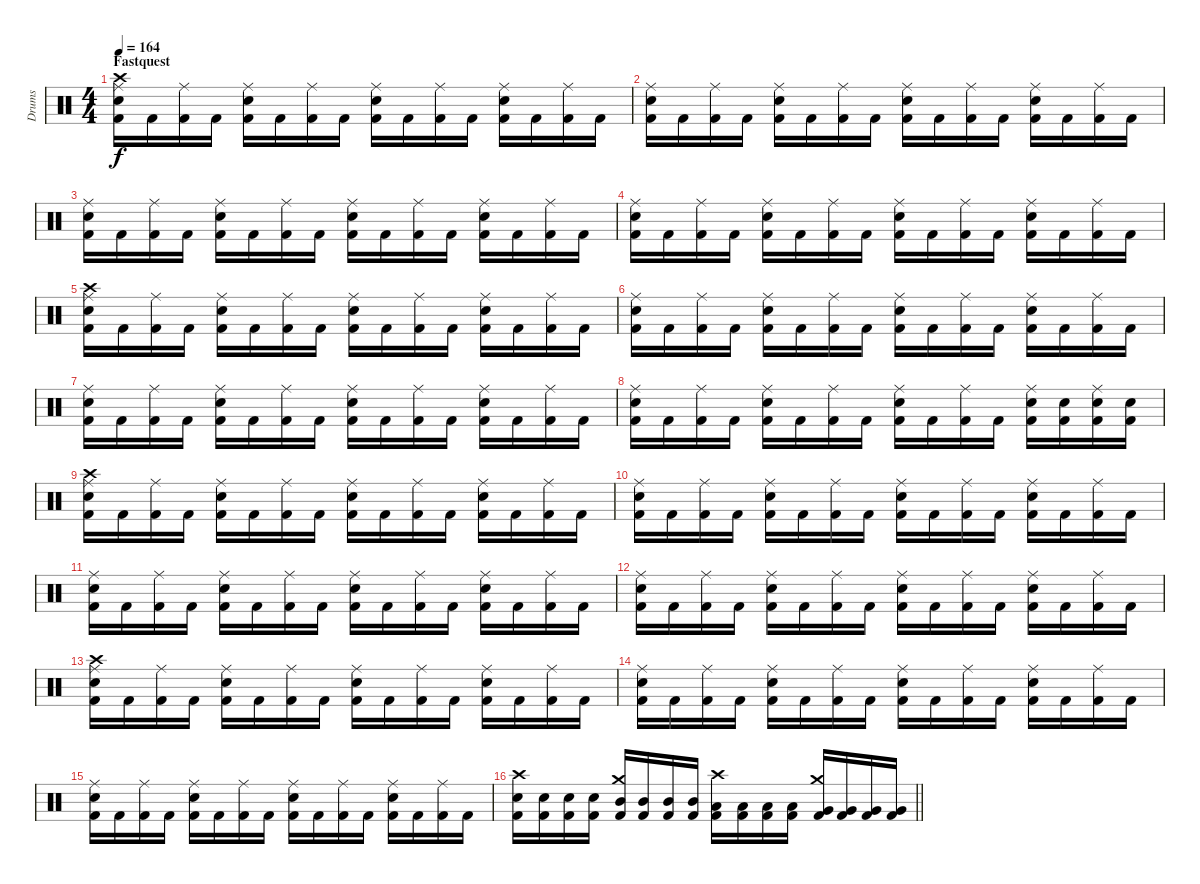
\track ("Drums" "Drums") {instrument percussion}
\staff {score}
\articulation defaults
\ts (4 4)
\section ("" "Fastquest")
\tempo 164
\clef neutral
\ks c
("Crash high (hit)" "Ride (middle)" "Snare (hit) 2" "Kick (hit) 2").16{dy f} "Kick (hit) 2".16 ("Ride (middle)" "Kick (hit) 2").16 "Kick (hit) 2".16 ("Ride (middle)" "Snare (hit) 2" "Kick (hit) 2").16 "Kick (hit) 2".16 ("Ride (middle)" "Kick (hit) 2").16 "Kick (hit) 2".16 ("Ride (middle)" "Snare (hit) 2" "Kick (hit) 2").16 "Kick (hit) 2".16 ("Ride (middle)" "Kick (hit) 2").16 "Kick (hit) 2".16 ("Ride (middle)" "Snare (hit) 2" "Kick (hit) 2").16 "Kick (hit) 2".16 ("Ride (middle)" "Kick (hit) 2").16 "Kick (hit) 2".16 |
("Ride (middle)" "Snare (hit) 2" "Kick (hit) 2").16 "Kick (hit) 2".16 ("Ride (middle)" "Kick (hit) 2").16 "Kick (hit) 2".16 ("Ride (middle)" "Snare (hit) 2" "Kick (hit) 2").16 "Kick (hit) 2".16 ("Ride (middle)" "Kick (hit) 2").16 "Kick (hit) 2".16 ("Ride (middle)" "Snare (hit) 2" "Kick (hit) 2").16 "Kick (hit) 2".16 ("Ride (middle)" "Kick (hit) 2").16 "Kick (hit) 2".16 ("Ride (middle)" "Snare (hit) 2" "Kick (hit) 2").16 "Kick (hit) 2".16 ("Ride (middle)" "Kick (hit) 2").16 "Kick (hit) 2".16 |
("Ride (middle)" "Snare (hit) 2" "Kick (hit) 2").16 "Kick (hit) 2".16 ("Ride (middle)" "Kick (hit) 2").16 "Kick (hit) 2".16 ("Ride (middle)" "Snare (hit) 2" "Kick (hit) 2").16 "Kick (hit) 2".16 ("Ride (middle)" "Kick (hit) 2").16 "Kick (hit) 2".16 ("Ride (middle)" "Snare (hit) 2" "Kick (hit) 2").16 "Kick (hit) 2".16 ("Ride (middle)" "Kick (hit) 2").16 "Kick (hit) 2".16 ("Ride (middle)" "Snare (hit) 2" "Kick (hit) 2").16 "Kick (hit) 2".16 ("Ride (middle)" "Kick (hit) 2").16 "Kick (hit) 2".16 |
("Ride (middle)" "Snare (hit) 2" "Kick (hit) 2").16 "Kick (hit) 2".16 ("Ride (middle)" "Kick (hit) 2").16 "Kick (hit) 2".16 ("Ride (middle)" "Snare (hit) 2" "Kick (hit) 2").16 "Kick (hit) 2".16 ("Ride (middle)" "Kick (hit) 2").16 "Kick (hit) 2".16 ("Ride (middle)" "Snare (hit) 2" "Kick (hit) 2").16 "Kick (hit) 2".16 ("Ride (middle)" "Kick (hit) 2").16 "Kick (hit) 2".16 ("Ride (middle)" "Snare (hit) 2" "Kick (hit) 2").16 "Kick (hit) 2".16 ("Ride (middle)" "Kick (hit) 2").16 "Kick (hit) 2".16 |
("Crash high (hit)" "Ride (middle)" "Snare (hit) 2" "Kick (hit) 2").16 "Kick (hit) 2".16 ("Ride (middle)" "Kick (hit) 2").16 "Kick (hit) 2".16 ("Ride (middle)" "Snare (hit) 2" "Kick (hit) 2").16 "Kick (hit) 2".16 ("Ride (middle)" "Kick (hit) 2").16 "Kick (hit) 2".16 ("Ride (middle)" "Snare (hit) 2" "Kick (hit) 2").16 "Kick (hit) 2".16 ("Ride (middle)" "Kick (hit) 2").16 "Kick (hit) 2".16 ("Ride (middle)" "Snare (hit) 2" "Kick (hit) 2").16 "Kick (hit) 2".16 ("Ride (middle)" "Kick (hit) 2").16 "Kick (hit) 2".16 |
("Ride (middle)" "Snare (hit) 2" "Kick (hit) 2").16 "Kick (hit) 2".16 ("Ride (middle)" "Kick (hit) 2").16 "Kick (hit) 2".16 ("Ride (middle)" "Snare (hit) 2" "Kick (hit) 2").16 "Kick (hit) 2".16 ("Ride (middle)" "Kick (hit) 2").16 "Kick (hit) 2".16 ("Ride (middle)" "Snare (hit) 2" "Kick (hit) 2").16 "Kick (hit) 2".16 ("Ride (middle)" "Kick (hit) 2").16 "Kick (hit) 2".16 ("Ride (middle)" "Snare (hit) 2" "Kick (hit) 2").16 "Kick (hit) 2".16 ("Ride (middle)" "Kick (hit) 2").16 "Kick (hit) 2".16 |
("Ride (middle)" "Snare (hit) 2" "Kick (hit) 2").16 "Kick (hit) 2".16 ("Ride (middle)" "Kick (hit) 2").16 "Kick (hit) 2".16 ("Ride (middle)" "Snare (hit) 2" "Kick (hit) 2").16 "Kick (hit) 2".16 ("Ride (middle)" "Kick (hit) 2").16 "Kick (hit) 2".16 ("Ride (middle)" "Snare (hit) 2" "Kick (hit) 2").16 "Kick (hit) 2".16 ("Ride (middle)" "Kick (hit) 2").16 "Kick (hit) 2".16 ("Ride (middle)" "Snare (hit) 2" "Kick (hit) 2").16 "Kick (hit) 2".16 ("Ride (middle)" "Kick (hit) 2").16 "Kick (hit) 2".16 |
("Ride (middle)" "Snare (hit) 2" "Kick (hit) 2").16 "Kick (hit) 2".16 ("Ride (middle)" "Kick (hit) 2").16 "Kick (hit) 2".16 ("Ride (middle)" "Snare (hit) 2" "Kick (hit) 2").16 "Kick (hit) 2".16 ("Ride (middle)" "Kick (hit) 2").16 "Kick (hit) 2".16 ("Ride (middle)" "Snare (hit) 2" "Kick (hit) 2").16 "Kick (hit) 2".16 ("Ride (middle)" "Kick (hit) 2").16 "Kick (hit) 2".16 ("Ride (middle)" "Snare (hit) 2" "Kick (hit) 2").16 ("Snare (hit) 2" "Kick (hit) 2").16 ("Ride (middle)" "Snare (hit) 2" "Kick (hit) 2").16 ("Snare (hit) 2" "Kick (hit) 2").16 |
("Crash high (hit)" "Ride (middle)" "Snare (hit) 2" "Kick (hit) 2").16 "Kick (hit) 2".16 ("Ride (middle)" "Kick (hit) 2").16 "Kick (hit) 2".16 ("Ride (middle)" "Snare (hit) 2" "Kick (hit) 2").16 "Kick (hit) 2".16 ("Ride (middle)" "Kick (hit) 2").16 "Kick (hit) 2".16 ("Ride (middle)" "Snare (hit) 2" "Kick (hit) 2").16 "Kick (hit) 2".16 ("Ride (middle)" "Kick (hit) 2").16 "Kick (hit) 2".16 ("Ride (middle)" "Snare (hit) 2" "Kick (hit) 2").16 "Kick (hit) 2".16 ("Ride (middle)" "Kick (hit) 2").16 "Kick (hit) 2".16 |
("Ride (middle)" "Snare (hit) 2" "Kick (hit) 2").16 "Kick (hit) 2".16 ("Ride (middle)" "Kick (hit) 2").16 "Kick (hit) 2".16 ("Ride (middle)" "Snare (hit) 2" "Kick (hit) 2").16 "Kick (hit) 2".16 ("Ride (middle)" "Kick (hit) 2").16 "Kick (hit) 2".16 ("Ride (middle)" "Snare (hit) 2" "Kick (hit) 2").16 "Kick (hit) 2".16 ("Ride (middle)" "Kick (hit) 2").16 "Kick (hit) 2".16 ("Ride (middle)" "Snare (hit) 2" "Kick (hit) 2").16 "Kick (hit) 2".16 ("Ride (middle)" "Kick (hit) 2").16 "Kick (hit) 2".16 |
("Ride (middle)" "Snare (hit) 2" "Kick (hit) 2").16 "Kick (hit) 2".16 ("Ride (middle)" "Kick (hit) 2").16 "Kick (hit) 2".16 ("Ride (middle)" "Snare (hit) 2" "Kick (hit) 2").16 "Kick (hit) 2".16 ("Ride (middle)" "Kick (hit) 2").16 "Kick (hit) 2".16 ("Ride (middle)" "Snare (hit) 2" "Kick (hit) 2").16 "Kick (hit) 2".16 ("Ride (middle)" "Kick (hit) 2").16 "Kick (hit) 2".16 ("Ride (middle)" "Snare (hit) 2" "Kick (hit) 2").16 "Kick (hit) 2".16 ("Ride (middle)" "Kick (hit) 2").16 "Kick (hit) 2".16 |
("Ride (middle)" "Snare (hit) 2" "Kick (hit) 2").16 "Kick (hit) 2".16 ("Ride (middle)" "Kick (hit) 2").16 "Kick (hit) 2".16 ("Ride (middle)" "Snare (hit) 2" "Kick (hit) 2").16 "Kick (hit) 2".16 ("Ride (middle)" "Kick (hit) 2").16 "Kick (hit) 2".16 ("Ride (middle)" "Snare (hit) 2" "Kick (hit) 2").16 "Kick (hit) 2".16 ("Ride (middle)" "Kick (hit) 2").16 "Kick (hit) 2".16 ("Ride (middle)" "Snare (hit) 2" "Kick (hit) 2").16 "Kick (hit) 2".16 ("Ride (middle)" "Kick (hit) 2").16 "Kick (hit) 2".16 |
("Crash high (hit)" "Ride (middle)" "Snare (hit) 2" "Kick (hit) 2").16 "Kick (hit) 2".16 ("Ride (middle)" "Kick (hit) 2").16 "Kick (hit) 2".16 ("Ride (middle)" "Snare (hit) 2" "Kick (hit) 2").16 "Kick (hit) 2".16 ("Ride (middle)" "Kick (hit) 2").16 "Kick (hit) 2".16 ("Ride (middle)" "Snare (hit) 2" "Kick (hit) 2").16 "Kick (hit) 2".16 ("Ride (middle)" "Kick (hit) 2").16 "Kick (hit) 2".16 ("Ride (middle)" "Snare (hit) 2" "Kick (hit) 2").16 "Kick (hit) 2".16 ("Ride (middle)" "Kick (hit) 2").16 "Kick (hit) 2".16 |
("Ride (middle)" "Snare (hit) 2" "Kick (hit) 2").16 "Kick (hit) 2".16 ("Ride (middle)" "Kick (hit) 2").16 "Kick (hit) 2".16 ("Ride (middle)" "Snare (hit) 2" "Kick (hit) 2").16 "Kick (hit) 2".16 ("Ride (middle)" "Kick (hit) 2").16 "Kick (hit) 2".16 ("Ride (middle)" "Snare (hit) 2" "Kick (hit) 2").16 "Kick (hit) 2".16 ("Ride (middle)" "Kick (hit) 2").16 "Kick (hit) 2".16 ("Ride (middle)" "Snare (hit) 2" "Kick (hit) 2").16 "Kick (hit) 2".16 ("Ride (middle)" "Kick (hit) 2").16 "Kick (hit) 2".16 |
("Ride (middle)" "Snare (hit) 2" "Kick (hit) 2").16 "Kick (hit) 2".16 ("Ride (middle)" "Kick (hit) 2").16 "Kick (hit) 2".16 ("Ride (middle)" "Snare (hit) 2" "Kick (hit) 2").16 "Kick (hit) 2".16 ("Ride (middle)" "Kick (hit) 2").16 "Kick (hit) 2".16 ("Ride (middle)" "Snare (hit) 2" "Kick (hit) 2").16 "Kick (hit) 2".16 ("Ride (middle)" "Kick (hit) 2").16 "Kick (hit) 2".16 ("Ride (middle)" "Snare (hit) 2" "Kick (hit) 2").16 "Kick (hit) 2".16 ("Ride (middle)" "Kick (hit) 2").16 "Kick (hit) 2".16 |
\barLineRight lightlight
("Crash high (hit)" "Snare (hit) 2" "Kick (hit) 2").16 ("Snare (hit) 2" "Kick (hit) 2").16 ("Snare (hit) 2" "Kick (hit) 2").16 ("Snare (hit) 2" "Kick (hit) 2").16 ("Crash medium (hit)" "Mid Tom (hit)" "Kick (hit) 2").16 ("Mid Tom (hit)" "Kick (hit) 2").16 ("Mid Tom (hit)" "Kick (hit) 2").16 ("Mid Tom (hit)" "Kick (hit) 2").16 ("Crash high (hit)" "Low Tom (hit)" "Kick (hit) 2").16 ("Low Tom (hit)" "Kick (hit) 2").16 ("Low Tom (hit)" "Kick (hit) 2").16 ("Low Tom (hit)" "Kick (hit) 2").16 ("Crash medium (hit)" "Very Low Tom (hit)" "Kick (hit) 2").16 ("Very Low Tom (hit)" "Kick (hit) 2").16 ("Very Low Tom (hit)" "Kick (hit) 2").16 ("Very Low Tom (hit)" "Kick (hit) 2").16
